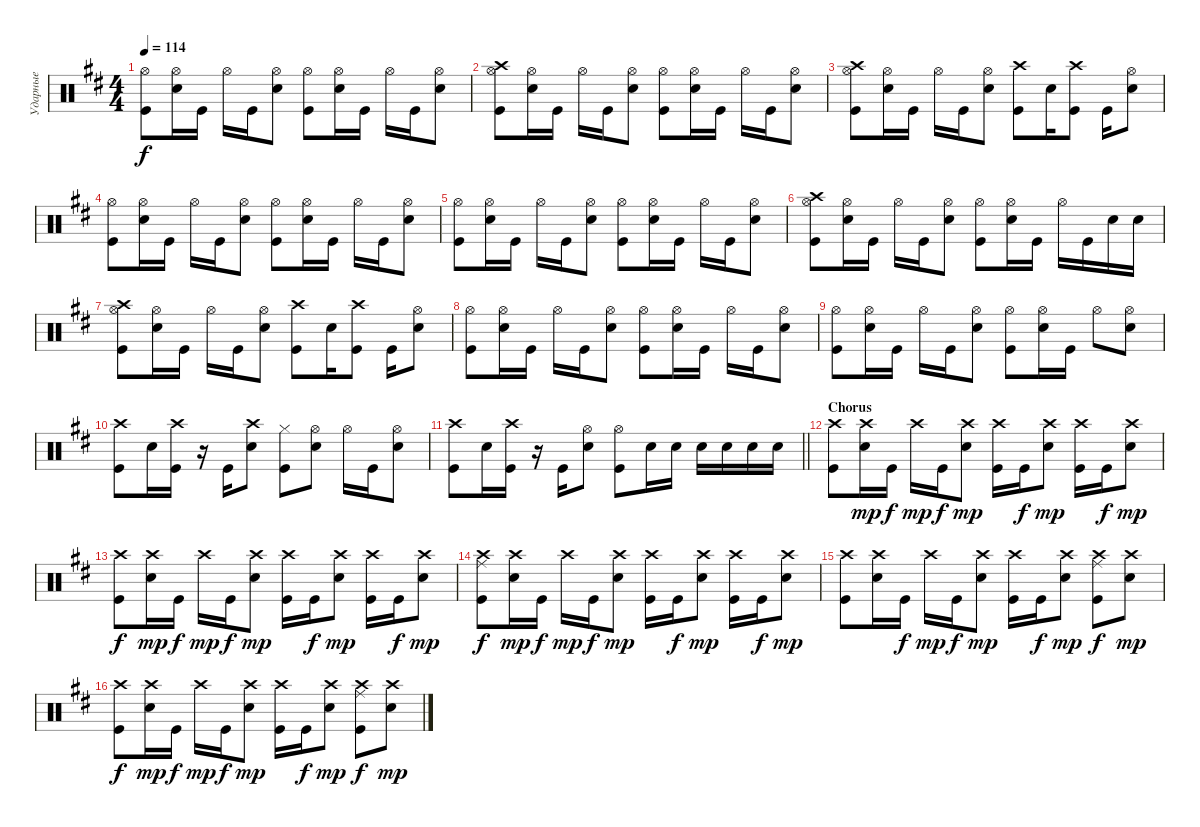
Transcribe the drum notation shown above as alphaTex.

\track ("Ударные" "Ударные") {instrument percussion}
\staff {score}
\articulation defaults
\ts (4 4)
\tempo 114
\clef neutral
\ks bminor
("Hi-Hat (open)" "Kick (hit)").8{dy f} ("Hi-Hat (open)" "Snare (hit) 2").16 "Kick (hit)".16 "Hi-Hat (open)".16 "Kick (hit)".16 ("Hi-Hat (open)" "Snare (hit) 2").8 ("Kick (hit)" "Hi-Hat (open)").8 ("Hi-Hat (open)" "Snare (hit) 2").16 "Kick (hit)".16 "Hi-Hat (open)".16 "Kick (hit)".16 ("Hi-Hat (open)" "Snare (hit) 2").8 |
("Hi-Hat (open)" "Crash high (hit)" "Kick (hit)").8 ("Hi-Hat (open)" "Snare (hit) 2").16 "Kick (hit)".16 "Hi-Hat (open)".16 "Kick (hit)".16 ("Hi-Hat (open)" "Snare (hit) 2").8 ("Kick (hit)" "Hi-Hat (open)").8 ("Hi-Hat (open)" "Snare (hit) 2").16 "Kick (hit)".16 "Hi-Hat (open)".16 "Kick (hit)".16 ("Hi-Hat (open)" "Snare (hit) 2").8 |
("Kick (hit)" "Crash high (hit)" "Hi-Hat (open)").8 ("Hi-Hat (open)" "Snare (hit) 2").16 "Kick (hit)".16 "Hi-Hat (open)".16 "Kick (hit)".16 ("Hi-Hat (open)" "Snare (hit) 2").8 ("Crash high (hit)" "Kick (hit)").8 "Snare (hit) 2".16 ("Crash high (hit)" "Kick (hit)").8 "Kick (hit)".16 ("Hi-Hat (open)" "Snare (hit) 2").8 |
("Hi-Hat (open)" "Kick (hit)").8 ("Hi-Hat (open)" "Snare (hit) 2").16 "Kick (hit)".16 "Hi-Hat (open)".16 "Kick (hit)".16 ("Hi-Hat (open)" "Snare (hit) 2").8 ("Kick (hit)" "Hi-Hat (open)").8 ("Hi-Hat (open)" "Snare (hit) 2").16 "Kick (hit)".16 "Hi-Hat (open)".16 "Kick (hit)".16 ("Hi-Hat (open)" "Snare (hit) 2").8 |
("Hi-Hat (open)" "Kick (hit)").8 ("Hi-Hat (open)" "Snare (hit) 2").16 "Kick (hit)".16 "Hi-Hat (open)".16 "Kick (hit)".16 ("Hi-Hat (open)" "Snare (hit) 2").8 ("Kick (hit)" "Hi-Hat (open)").8 ("Hi-Hat (open)" "Snare (hit) 2").16 "Kick (hit)".16 "Hi-Hat (open)".16 "Kick (hit)".16 ("Hi-Hat (open)" "Snare (hit) 2").8 |
("Hi-Hat (open)" "Crash high (hit)" "Kick (hit)").8 ("Hi-Hat (open)" "Snare (hit) 2").16 "Kick (hit)".16 "Hi-Hat (open)".16 "Kick (hit)".16 ("Hi-Hat (open)" "Snare (hit) 2").8 ("Kick (hit)" "Hi-Hat (open)").8 ("Hi-Hat (open)" "Snare (hit) 2").16 "Kick (hit)".16 "Hi-Hat (open)".16 "Kick (hit)".16 "Snare (hit) 2".16 "Snare (hit) 2".16 |
("Kick (hit)" "Crash high (hit)" "Hi-Hat (open)").8 ("Hi-Hat (open)" "Snare (hit) 2").16 "Kick (hit)".16 "Hi-Hat (open)".16 "Kick (hit)".16 ("Hi-Hat (open)" "Snare (hit) 2").8 ("Crash high (hit)" "Kick (hit)").8 "Snare (hit) 2".16 ("Crash high (hit)" "Kick (hit)").8 "Kick (hit)".16 ("Hi-Hat (open)" "Snare (hit) 2").8 |
("Hi-Hat (open)" "Kick (hit)").8 ("Hi-Hat (open)" "Snare (hit) 2").16 "Kick (hit)".16 "Hi-Hat (open)".16 "Kick (hit)".16 ("Hi-Hat (open)" "Snare (hit) 2").8 ("Kick (hit)" "Hi-Hat (open)").8 ("Hi-Hat (open)" "Snare (hit) 2").16 "Kick (hit)".16 "Hi-Hat (open)".16 "Kick (hit)".16 ("Hi-Hat (open)" "Snare (hit) 2").8 |
("Hi-Hat (open)" "Kick (hit)").8 ("Hi-Hat (open)" "Snare (hit) 2").16 "Kick (hit)".16 "Hi-Hat (open)".16 "Kick (hit)".16 ("Hi-Hat (open)" "Snare (hit) 2").8 ("Kick (hit)" "Hi-Hat (open)").8 ("Hi-Hat (open)" "Snare (hit) 2").16 "Kick (hit)".16 "Hi-Hat (open)".8 ("Hi-Hat (open)" "Snare (hit) 2").8 |
("Crash high (hit)" "Kick (hit)").8 "Snare (hit) 2".16 ("Kick (hit)" "Crash high (hit)").16 r.16 "Kick (hit)".16 ("Crash high (hit)" "Snare (hit) 2").8 ("Kick (hit)" "Hi-Hat (closed)").8 ("Hi-Hat (open)" "Snare (hit) 2").8 "Hi-Hat (open)".16 "Kick (hit)".16 ("Hi-Hat (open)" "Snare (hit) 2").8 |
\barLineRight lightlight
("Crash high (hit)" "Kick (hit)").8 "Snare (hit) 2".16 ("Kick (hit)" "Crash high (hit)").16 r.16 "Kick (hit)".16 ("Hi-Hat (open)" "Snare (hit) 2").8 ("Kick (hit)" "Hi-Hat (open)").8 "Snare (hit) 2".16 "Snare (hit) 2".16 "Snare (hit) 2".16 "Snare (hit) 2".16 "Snare (hit) 2".16 "Snare (hit) 2".16 |
\section ("" "Chorus")
("Crash high (hit)" "Kick (hit)").8 ("Crash high (hit)" "Snare (hit) 2").16{dy mp} "Kick (hit)".16{dy f} "Crash high (hit)".16{dy mp} "Kick (hit)".16{dy f} ("Crash high (hit)" "Snare (hit) 2").8{dy mp} ("Kick (hit)" "Crash high (hit)").16 "Kick (hit)".16{dy f} ("Crash high (hit)" "Snare (hit) 2").8{dy mp} ("Kick (hit)" "Crash high (hit)").16 "Kick (hit)".16{dy f} ("Crash high (hit)" "Snare (hit) 2").8{dy mp} |
("Crash high (hit)" "Kick (hit)").8{dy f} ("Crash high (hit)" "Snare (hit) 2").16{dy mp} "Kick (hit)".16{dy f} "Crash high (hit)".16{dy mp} "Kick (hit)".16{dy f} ("Crash high (hit)" "Snare (hit) 2").8{dy mp} ("Kick (hit)" "Crash high (hit)").16 "Kick (hit)".16{dy f} ("Crash high (hit)" "Snare (hit) 2").8{dy mp} ("Crash high (hit)" "Kick (hit)").16 "Kick (hit)".16{dy f} ("Crash high (hit)" "Snare (hit) 2").8{dy mp} |
("Crash high (hit)" "Ride (middle)" "Kick (hit)").8{dy f} ("Crash high (hit)" "Snare (hit) 2").16{dy mp} "Kick (hit)".16{dy f} "Crash high (hit)".16{dy mp} "Kick (hit)".16{dy f} ("Crash high (hit)" "Snare (hit) 2").8{dy mp} ("Kick (hit)" "Crash high (hit)").16 "Kick (hit)".16{dy f} ("Crash high (hit)" "Snare (hit) 2").8{dy mp} ("Kick (hit)" "Crash high (hit)").16 "Kick (hit)".16{dy f} ("Crash high (hit)" "Snare (hit) 2").8{dy mp} |
("Crash high (hit)" "Kick (hit)").8 ("Crash high (hit)" "Snare (hit) 2").16 "Kick (hit)".16{dy f} "Crash high (hit)".16{dy mp} "Kick (hit)".16{dy f} ("Crash high (hit)" "Snare (hit) 2").8{dy mp} ("Kick (hit)" "Crash high (hit)").16 "Kick (hit)".16{dy f} ("Crash high (hit)" "Snare (hit) 2").8{dy mp} ("Ride (middle)" "Crash high (hit)" "Kick (hit)").8{dy f} ("Crash high (hit)" "Snare (hit) 2").8{dy mp} |
("Crash high (hit)" "Kick (hit)").8{dy f} ("Crash high (hit)" "Snare (hit) 2").16{dy mp} "Kick (hit)".16{dy f} "Crash high (hit)".16{dy mp} "Kick (hit)".16{dy f} ("Crash high (hit)" "Snare (hit) 2").8{dy mp} ("Kick (hit)" "Crash high (hit)").16 "Kick (hit)".16{dy f} ("Crash high (hit)" "Snare (hit) 2").8{dy mp} ("Ride (middle)" "Crash high (hit)" "Kick (hit)").8{dy f} ("Crash high (hit)" "Snare (hit) 2").8{dy mp}
